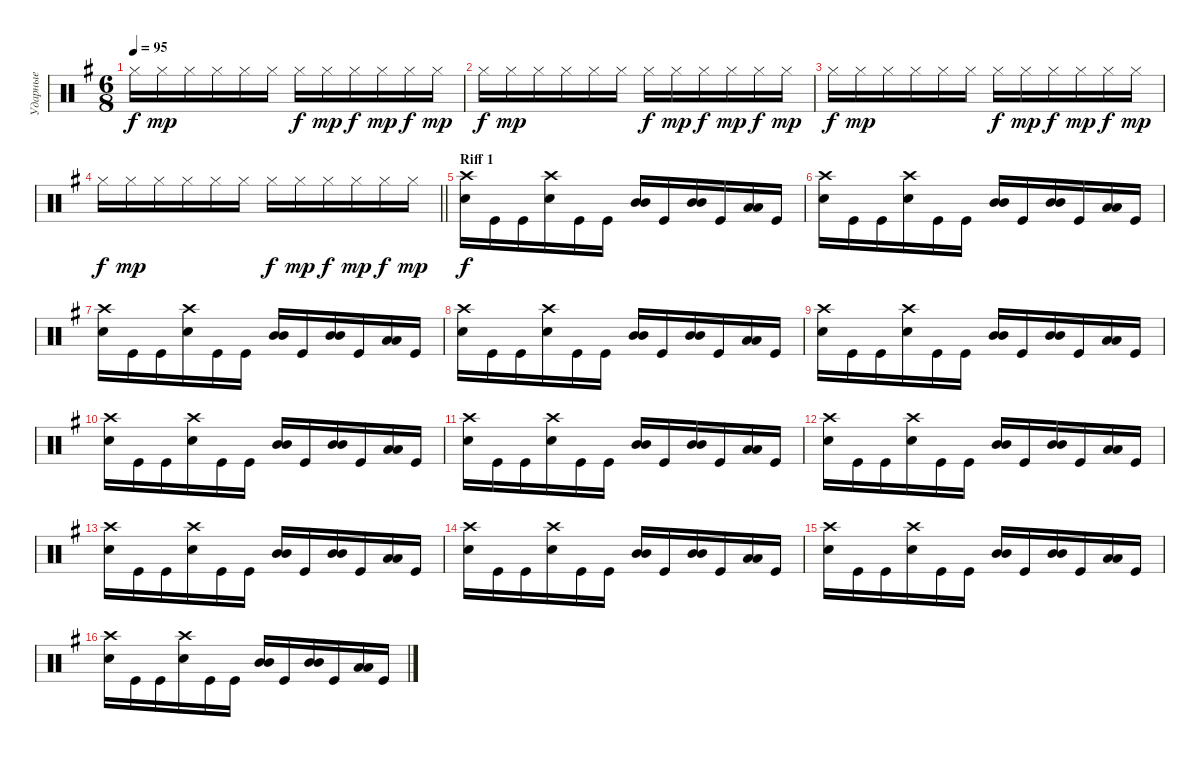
\track ("Ударные" "Ударные") {instrument percussion}
\staff {score}
\articulation defaults
\ts (6 8)
\tempo 95
\clef neutral
\ks eminor "Hi-Hat (closed)".16{dy f} "Hi-Hat (closed)".16{dy mp} "Hi-Hat (closed)".16 "Hi-Hat (closed)".16 "Hi-Hat (closed)".16 "Hi-Hat (closed)".16 "Hi-Hat (closed)".16{dy f} "Hi-Hat (closed)".16{dy mp} "Hi-Hat (closed)".16{dy f} "Hi-Hat (closed)".16{dy mp} "Hi-Hat (closed)".16{dy f} "Hi-Hat (closed)".16{dy mp}
|
"Hi-Hat (closed)".16{dy f} "Hi-Hat (closed)".16{dy mp} "Hi-Hat (closed)".16 "Hi-Hat (closed)".16 "Hi-Hat (closed)".16 "Hi-Hat (closed)".16 "Hi-Hat (closed)".16{dy f} "Hi-Hat (closed)".16{dy mp} "Hi-Hat (closed)".16{dy f} "Hi-Hat (closed)".16{dy mp} "Hi-Hat (closed)".16{dy f} "Hi-Hat (closed)".16{dy mp} |
"Hi-Hat (closed)".16{dy f} "Hi-Hat (closed)".16{dy mp} "Hi-Hat (closed)".16 "Hi-Hat (closed)".16 "Hi-Hat (closed)".16 "Hi-Hat (closed)".16 "Hi-Hat (closed)".16{dy f} "Hi-Hat (closed)".16{dy mp} "Hi-Hat (closed)".16{dy f} "Hi-Hat (closed)".16{dy mp} "Hi-Hat (closed)".16{dy f} "Hi-Hat (closed)".16{dy mp} |
\barLineRight lightlight "Hi-Hat (closed)".16{dy f} "Hi-Hat (closed)".16{dy mp} "Hi-Hat (closed)".16 "Hi-Hat (closed)".16 "Hi-Hat (closed)".16 "Hi-Hat (closed)".16 "Hi-Hat (closed)".16{dy f} "Hi-Hat (closed)".16{dy mp} "Hi-Hat (closed)".16{dy f} "Hi-Hat (closed)".16{dy mp} "Hi-Hat (closed)".16{dy f} "Hi-Hat (closed)".16{dy mp}
|
\section ("" "Riff 1")
("Snare (hit) 2" "Crash high (hit)").16{dy f} "Kick (hit)".16 "Kick (hit)".16 ("Snare (hit) 2" "Crash high (hit)").16 "Kick (hit)".16 "Kick (hit)".16 ("Mid Tom (hit)" "Mid Tom (hit)").16{bd 240} "Kick (hit)".16 ("Mid Tom (hit)" "Mid Tom (hit)").16{bd 240} "Kick (hit)".16 ("Low Tom (hit)" "Low Tom (hit)").16{bd 240} "Kick (hit)".16 |
("Snare (hit) 2" "Crash high (hit)").16 "Kick (hit)".16 "Kick (hit)".16 ("Snare (hit) 2" "Crash high (hit)").16 "Kick (hit)".16 "Kick (hit)".16 ("Mid Tom (hit)" "Mid Tom (hit)").16{bd 240} "Kick (hit)".16 ("Mid Tom (hit)" "Mid Tom (hit)").16{bd 240} "Kick (hit)".16 ("Low Tom (hit)" "Low Tom (hit)").16{bd 240} "Kick (hit)".16 |
("Snare (hit) 2" "Crash high (hit)").16 "Kick (hit)".16 "Kick (hit)".16 ("Snare (hit) 2" "Crash high (hit)").16 "Kick (hit)".16 "Kick (hit)".16 ("Mid Tom (hit)" "Mid Tom (hit)").16{bd 240} "Kick (hit)".16 ("Mid Tom (hit)" "Mid Tom (hit)").16{bd 240} "Kick (hit)".16 ("Low Tom (hit)" "Low Tom (hit)").16{bd 240} "Kick (hit)".16 |
("Snare (hit) 2" "Crash high (hit)").16 "Kick (hit)".16 "Kick (hit)".16 ("Snare (hit) 2" "Crash high (hit)").16 "Kick (hit)".16 "Kick (hit)".16 ("Mid Tom (hit)" "Mid Tom (hit)").16{bd 240} "Kick (hit)".16 ("Mid Tom (hit)" "Mid Tom (hit)").16{bd 240} "Kick (hit)".16 ("Low Tom (hit)" "Low Tom (hit)").16{bd 240} "Kick (hit)".16 |
("Snare (hit) 2" "Crash high (hit)").16 "Kick (hit)".16 "Kick (hit)".16 ("Snare (hit) 2" "Crash high (hit)").16 "Kick (hit)".16 "Kick (hit)".16 ("Mid Tom (hit)" "Mid Tom (hit)").16{bd 240} "Kick (hit)".16 ("Mid Tom (hit)" "Mid Tom (hit)").16{bd 240} "Kick (hit)".16 ("Low Tom (hit)" "Low Tom (hit)").16{bd 240} "Kick (hit)".16 |
("Snare (hit) 2" "Crash high (hit)").16 "Kick (hit)".16 "Kick (hit)".16 ("Snare (hit) 2" "Crash high (hit)").16 "Kick (hit)".16 "Kick (hit)".16 ("Mid Tom (hit)" "Mid Tom (hit)").16{bd 240} "Kick (hit)".16 ("Mid Tom (hit)" "Mid Tom (hit)").16{bd 240} "Kick (hit)".16 ("Low Tom (hit)" "Low Tom (hit)").16{bd 240} "Kick (hit)".16 |
("Snare (hit) 2" "Crash high (hit)").16 "Kick (hit)".16 "Kick (hit)".16 ("Snare (hit) 2" "Crash high (hit)").16 "Kick (hit)".16 "Kick (hit)".16 ("Mid Tom (hit)" "Mid Tom (hit)").16{bd 240} "Kick (hit)".16 ("Mid Tom (hit)" "Mid Tom (hit)").16{bd 240} "Kick (hit)".16 ("Low Tom (hit)" "Low Tom (hit)").16{bd 240} "Kick (hit)".16 |
("Snare (hit) 2" "Crash high (hit)").16 "Kick (hit)".16 "Kick (hit)".16 ("Snare (hit) 2" "Crash high (hit)").16 "Kick (hit)".16 "Kick (hit)".16 ("Mid Tom (hit)" "Mid Tom (hit)").16{bd 240} "Kick (hit)".16 ("Mid Tom (hit)" "Mid Tom (hit)").16{bd 240} "Kick (hit)".16 ("Low Tom (hit)" "Low Tom (hit)").16{bd 240} "Kick (hit)".16 |
("Snare (hit) 2" "Crash high (hit)").16 "Kick (hit)".16 "Kick (hit)".16 ("Snare (hit) 2" "Crash high (hit)").16 "Kick (hit)".16 "Kick (hit)".16 ("Mid Tom (hit)" "Mid Tom (hit)").16{bd 240} "Kick (hit)".16 ("Mid Tom (hit)" "Mid Tom (hit)").16{bd 240} "Kick (hit)".16 ("Low Tom (hit)" "Low Tom (hit)").16{bd 240} "Kick (hit)".16 |
("Snare (hit) 2" "Crash high (hit)").16 "Kick (hit)".16 "Kick (hit)".16 ("Snare (hit) 2" "Crash high (hit)").16 "Kick (hit)".16 "Kick (hit)".16 ("Mid Tom (hit)" "Mid Tom (hit)").16{bd 240} "Kick (hit)".16 ("Mid Tom (hit)" "Mid Tom (hit)").16{bd 240} "Kick (hit)".16 ("Low Tom (hit)" "Low Tom (hit)").16{bd 240} "Kick (hit)".16 |
("Snare (hit) 2" "Crash high (hit)").16 "Kick (hit)".16 "Kick (hit)".16 ("Snare (hit) 2" "Crash high (hit)").16 "Kick (hit)".16 "Kick (hit)".16 ("Mid Tom (hit)" "Mid Tom (hit)").16{bd 240} "Kick (hit)".16 ("Mid Tom (hit)" "Mid Tom (hit)").16{bd 240} "Kick (hit)".16 ("Low Tom (hit)" "Low Tom (hit)").16{bd 240} "Kick (hit)".16 |
("Snare (hit) 2" "Crash high (hit)").16 "Kick (hit)".16 "Kick (hit)".16 ("Snare (hit) 2" "Crash high (hit)").16 "Kick (hit)".16 "Kick (hit)".16 ("Mid Tom (hit)" "Mid Tom (hit)").16{bd 240} "Kick (hit)".16 ("Mid Tom (hit)" "Mid Tom (hit)").16{bd 240} "Kick (hit)".16 ("Low Tom (hit)" "Low Tom (hit)").16{bd 240} "Kick (hit)".16
